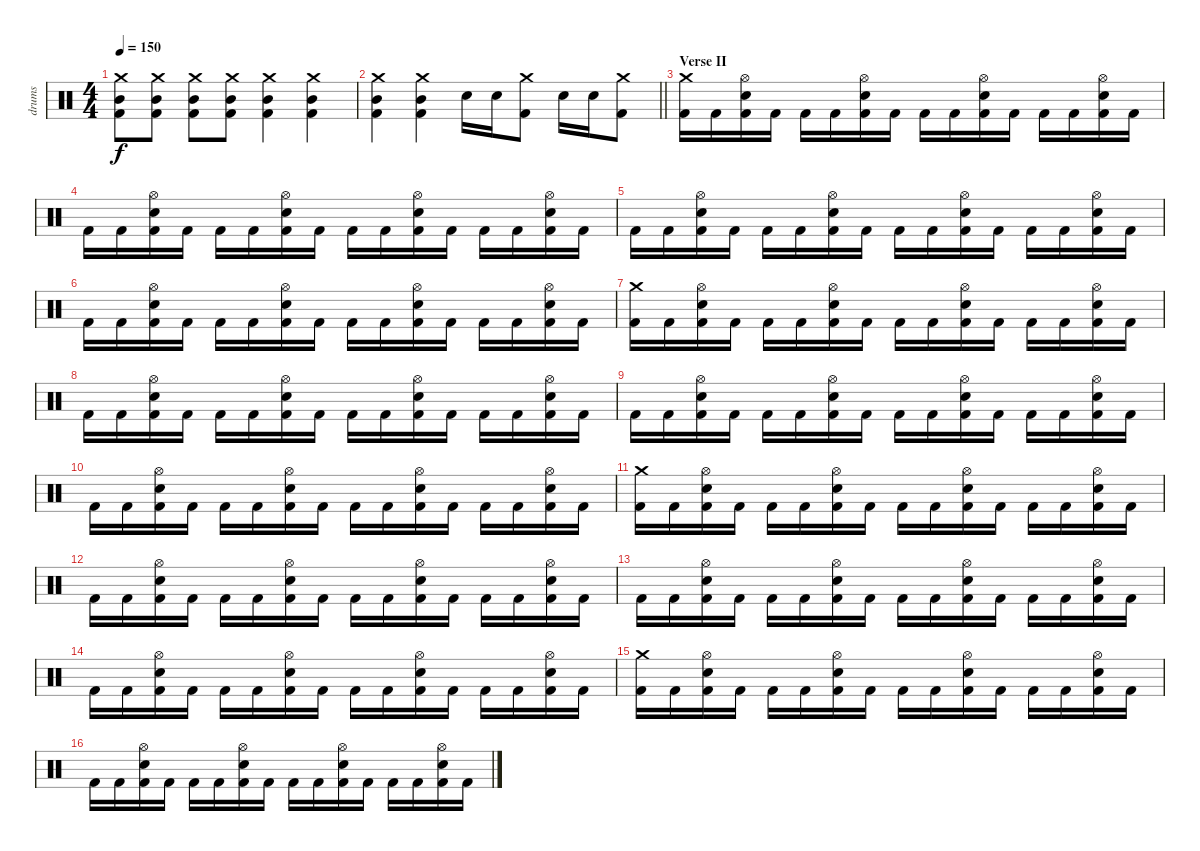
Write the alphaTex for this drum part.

\track ("drums" "drums") {instrument percussion}
\staff {score}
\articulation defaults
\ts (4 4)
\tempo 150
\clef neutral
\ks c
("Crash medium (hit)" "Mid Tom (hit)" "Kick (hit) 2").8{dy f} ("Crash medium (hit)" "Mid Tom (hit)" "Kick (hit) 2").8 ("Crash medium (hit)" "Mid Tom (hit)" "Kick (hit) 2").8 ("Crash medium (hit)" "Mid Tom (hit)" "Kick (hit) 2").8 ("Crash medium (hit)" "Mid Tom (hit)" "Kick (hit) 2").4 ("Crash medium (hit)" "Mid Tom (hit)" "Kick (hit) 2").4 |
\barLineRight lightlight
("Crash medium (hit)" "Mid Tom (hit)" "Kick (hit) 2").4 ("Crash medium (hit)" "Mid Tom (hit)" "Kick (hit) 2").4 "Electric Snare (hit)".16 "Electric Snare (hit)".16 ("Crash medium (hit)" "Kick (hit) 2").8 "Electric Snare (hit)".16 "Electric Snare (hit)".16 ("Crash medium (hit)" "Kick (hit) 2").8 |
\section ("" "Verse II")
("Crash medium (hit)" "Kick (hit) 2").16 "Kick (hit) 2".16 ("Hi-Hat (open)" "Electric Snare (hit)" "Kick (hit) 2").16 "Kick (hit) 2".16 "Kick (hit) 2".16 "Kick (hit) 2".16 ("Hi-Hat (open)" "Electric Snare (hit)" "Kick (hit) 2").16 "Kick (hit) 2".16 "Kick (hit) 2".16 "Kick (hit) 2".16 ("Hi-Hat (open)" "Electric Snare (hit)" "Kick (hit) 2").16 "Kick (hit) 2".16 "Kick (hit) 2".16 "Kick (hit) 2".16 ("Hi-Hat (open)" "Electric Snare (hit)" "Kick (hit) 2").16 "Kick (hit) 2".16 |
"Kick (hit) 2".16 "Kick (hit) 2".16 ("Hi-Hat (open)" "Electric Snare (hit)" "Kick (hit) 2").16 "Kick (hit) 2".16 "Kick (hit) 2".16 "Kick (hit) 2".16 ("Hi-Hat (open)" "Electric Snare (hit)" "Kick (hit) 2").16 "Kick (hit) 2".16 "Kick (hit) 2".16 "Kick (hit) 2".16 ("Hi-Hat (open)" "Electric Snare (hit)" "Kick (hit) 2").16 "Kick (hit) 2".16 "Kick (hit) 2".16 "Kick (hit) 2".16 ("Hi-Hat (open)" "Electric Snare (hit)" "Kick (hit) 2").16 "Kick (hit) 2".16 |
"Kick (hit) 2".16 "Kick (hit) 2".16 ("Hi-Hat (open)" "Electric Snare (hit)" "Kick (hit) 2").16 "Kick (hit) 2".16 "Kick (hit) 2".16 "Kick (hit) 2".16 ("Hi-Hat (open)" "Electric Snare (hit)" "Kick (hit) 2").16 "Kick (hit) 2".16 "Kick (hit) 2".16 "Kick (hit) 2".16 ("Hi-Hat (open)" "Electric Snare (hit)" "Kick (hit) 2").16 "Kick (hit) 2".16 "Kick (hit) 2".16 "Kick (hit) 2".16 ("Hi-Hat (open)" "Electric Snare (hit)" "Kick (hit) 2").16 "Kick (hit) 2".16 |
"Kick (hit) 2".16 "Kick (hit) 2".16 ("Hi-Hat (open)" "Electric Snare (hit)" "Kick (hit) 2").16 "Kick (hit) 2".16 "Kick (hit) 2".16 "Kick (hit) 2".16 ("Hi-Hat (open)" "Electric Snare (hit)" "Kick (hit) 2").16 "Kick (hit) 2".16 "Kick (hit) 2".16 "Kick (hit) 2".16 ("Hi-Hat (open)" "Electric Snare (hit)" "Kick (hit) 2").16 "Kick (hit) 2".16 "Kick (hit) 2".16 "Kick (hit) 2".16 ("Hi-Hat (open)" "Electric Snare (hit)" "Kick (hit) 2").16 "Kick (hit) 2".16 |
("Crash medium (hit)" "Kick (hit) 2").16 "Kick (hit) 2".16 ("Hi-Hat (open)" "Electric Snare (hit)" "Kick (hit) 2").16 "Kick (hit) 2".16 "Kick (hit) 2".16 "Kick (hit) 2".16 ("Hi-Hat (open)" "Electric Snare (hit)" "Kick (hit) 2").16 "Kick (hit) 2".16 "Kick (hit) 2".16 "Kick (hit) 2".16 ("Hi-Hat (open)" "Electric Snare (hit)" "Kick (hit) 2").16 "Kick (hit) 2".16 "Kick (hit) 2".16 "Kick (hit) 2".16 ("Hi-Hat (open)" "Electric Snare (hit)" "Kick (hit) 2").16 "Kick (hit) 2".16 |
"Kick (hit) 2".16 "Kick (hit) 2".16 ("Hi-Hat (open)" "Electric Snare (hit)" "Kick (hit) 2").16 "Kick (hit) 2".16 "Kick (hit) 2".16 "Kick (hit) 2".16 ("Hi-Hat (open)" "Electric Snare (hit)" "Kick (hit) 2").16 "Kick (hit) 2".16 "Kick (hit) 2".16 "Kick (hit) 2".16 ("Hi-Hat (open)" "Electric Snare (hit)" "Kick (hit) 2").16 "Kick (hit) 2".16 "Kick (hit) 2".16 "Kick (hit) 2".16 ("Hi-Hat (open)" "Electric Snare (hit)" "Kick (hit) 2").16 "Kick (hit) 2".16 |
"Kick (hit) 2".16 "Kick (hit) 2".16 ("Hi-Hat (open)" "Electric Snare (hit)" "Kick (hit) 2").16 "Kick (hit) 2".16 "Kick (hit) 2".16 "Kick (hit) 2".16 ("Hi-Hat (open)" "Electric Snare (hit)" "Kick (hit) 2").16 "Kick (hit) 2".16 "Kick (hit) 2".16 "Kick (hit) 2".16 ("Hi-Hat (open)" "Electric Snare (hit)" "Kick (hit) 2").16 "Kick (hit) 2".16 "Kick (hit) 2".16 "Kick (hit) 2".16 ("Hi-Hat (open)" "Electric Snare (hit)" "Kick (hit) 2").16 "Kick (hit) 2".16 |
"Kick (hit) 2".16 "Kick (hit) 2".16 ("Hi-Hat (open)" "Electric Snare (hit)" "Kick (hit) 2").16 "Kick (hit) 2".16 "Kick (hit) 2".16 "Kick (hit) 2".16 ("Hi-Hat (open)" "Electric Snare (hit)" "Kick (hit) 2").16 "Kick (hit) 2".16 "Kick (hit) 2".16 "Kick (hit) 2".16 ("Hi-Hat (open)" "Electric Snare (hit)" "Kick (hit) 2").16 "Kick (hit) 2".16 "Kick (hit) 2".16 "Kick (hit) 2".16 ("Hi-Hat (open)" "Electric Snare (hit)" "Kick (hit) 2").16 "Kick (hit) 2".16 |
("Crash medium (hit)" "Kick (hit) 2").16 "Kick (hit) 2".16 ("Hi-Hat (open)" "Electric Snare (hit)" "Kick (hit) 2").16 "Kick (hit) 2".16 "Kick (hit) 2".16 "Kick (hit) 2".16 ("Hi-Hat (open)" "Electric Snare (hit)" "Kick (hit) 2").16 "Kick (hit) 2".16 "Kick (hit) 2".16 "Kick (hit) 2".16 ("Hi-Hat (open)" "Electric Snare (hit)" "Kick (hit) 2").16 "Kick (hit) 2".16 "Kick (hit) 2".16 "Kick (hit) 2".16 ("Hi-Hat (open)" "Electric Snare (hit)" "Kick (hit) 2").16 "Kick (hit) 2".16 |
"Kick (hit) 2".16 "Kick (hit) 2".16 ("Hi-Hat (open)" "Electric Snare (hit)" "Kick (hit) 2").16 "Kick (hit) 2".16 "Kick (hit) 2".16 "Kick (hit) 2".16 ("Hi-Hat (open)" "Electric Snare (hit)" "Kick (hit) 2").16 "Kick (hit) 2".16 "Kick (hit) 2".16 "Kick (hit) 2".16 ("Hi-Hat (open)" "Electric Snare (hit)" "Kick (hit) 2").16 "Kick (hit) 2".16 "Kick (hit) 2".16 "Kick (hit) 2".16 ("Hi-Hat (open)" "Electric Snare (hit)" "Kick (hit) 2").16 "Kick (hit) 2".16 |
"Kick (hit) 2".16 "Kick (hit) 2".16 ("Hi-Hat (open)" "Electric Snare (hit)" "Kick (hit) 2").16 "Kick (hit) 2".16 "Kick (hit) 2".16 "Kick (hit) 2".16 ("Hi-Hat (open)" "Electric Snare (hit)" "Kick (hit) 2").16 "Kick (hit) 2".16 "Kick (hit) 2".16 "Kick (hit) 2".16 ("Hi-Hat (open)" "Electric Snare (hit)" "Kick (hit) 2").16 "Kick (hit) 2".16 "Kick (hit) 2".16 "Kick (hit) 2".16 ("Hi-Hat (open)" "Electric Snare (hit)" "Kick (hit) 2").16 "Kick (hit) 2".16 |
"Kick (hit) 2".16 "Kick (hit) 2".16 ("Hi-Hat (open)" "Electric Snare (hit)" "Kick (hit) 2").16 "Kick (hit) 2".16 "Kick (hit) 2".16 "Kick (hit) 2".16 ("Hi-Hat (open)" "Electric Snare (hit)" "Kick (hit) 2").16 "Kick (hit) 2".16 "Kick (hit) 2".16 "Kick (hit) 2".16 ("Hi-Hat (open)" "Electric Snare (hit)" "Kick (hit) 2").16 "Kick (hit) 2".16 "Kick (hit) 2".16 "Kick (hit) 2".16 ("Hi-Hat (open)" "Electric Snare (hit)" "Kick (hit) 2").16 "Kick (hit) 2".16 |
("Crash medium (hit)" "Kick (hit) 2").16 "Kick (hit) 2".16 ("Hi-Hat (open)" "Electric Snare (hit)" "Kick (hit) 2").16 "Kick (hit) 2".16 "Kick (hit) 2".16 "Kick (hit) 2".16 ("Hi-Hat (open)" "Electric Snare (hit)" "Kick (hit) 2").16 "Kick (hit) 2".16 "Kick (hit) 2".16 "Kick (hit) 2".16 ("Hi-Hat (open)" "Electric Snare (hit)" "Kick (hit) 2").16 "Kick (hit) 2".16 "Kick (hit) 2".16 "Kick (hit) 2".16 ("Hi-Hat (open)" "Electric Snare (hit)" "Kick (hit) 2").16 "Kick (hit) 2".16 |
"Kick (hit) 2".16 "Kick (hit) 2".16 ("Hi-Hat (open)" "Electric Snare (hit)" "Kick (hit) 2").16 "Kick (hit) 2".16 "Kick (hit) 2".16 "Kick (hit) 2".16 ("Hi-Hat (open)" "Electric Snare (hit)" "Kick (hit) 2").16 "Kick (hit) 2".16 "Kick (hit) 2".16 "Kick (hit) 2".16 ("Hi-Hat (open)" "Electric Snare (hit)" "Kick (hit) 2").16 "Kick (hit) 2".16 "Kick (hit) 2".16 "Kick (hit) 2".16 ("Hi-Hat (open)" "Electric Snare (hit)" "Kick (hit) 2").16 "Kick (hit) 2".16
